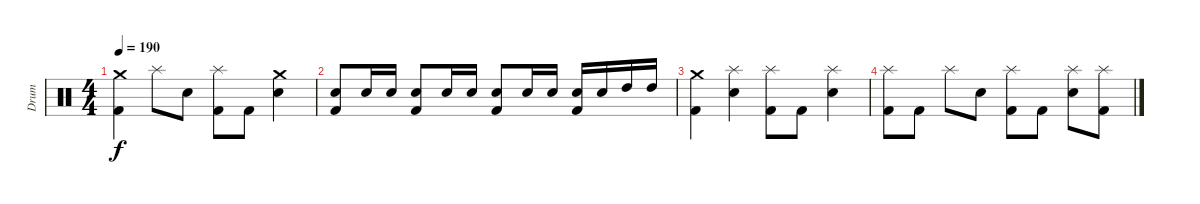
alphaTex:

\track ("Drum" "Drum") {instrument percussion}
\staff {score}
\articulation defaults
\ts (4 4)
\tempo 190
\clef neutral
\ks c
("Crash medium (hit)" "Kick (hit) 2").4{dy f} "Splash (hit)".8 "Electric Snare (hit)".8 ("Splash (hit)" "Kick (hit) 2").8 "Kick (hit) 2".8 ("Crash medium (hit)" "Electric Snare (hit)").4 |
("Electric Snare (hit)" "Kick (hit) 2").8 "Electric Snare (hit)".16 "Electric Snare (hit)".16 ("Electric Snare (hit)" "Kick (hit) 2").8 "Electric Snare (hit)".16 "Electric Snare (hit)".16 ("Electric Snare (hit)" "Kick (hit) 2").8 "Snare (hit) 2".16 "Snare (hit) 2".16 ("Snare (hit) 2" "Kick (hit) 2").16 "Snare (hit) 2".16 "High Tom (hit)".16 "High Tom (hit)".16 |
("Crash medium (hit)" "Kick (hit) 2").4 ("Splash (hit)" "Electric Snare (hit)").4 ("Splash (hit)" "Kick (hit) 2").8 "Kick (hit) 2".8 ("Splash (hit)" "Electric Snare (hit)").4 |
("Splash (hit)" "Kick (hit) 2").8 "Kick (hit) 2".8 "Splash (hit)".8 "Electric Snare (hit)".8 ("Splash (hit)" "Kick (hit) 2").8 "Kick (hit) 2".8 ("Splash (hit)" "Electric Snare (hit)").8 ("Splash (hit)" "Kick (hit) 2").8
